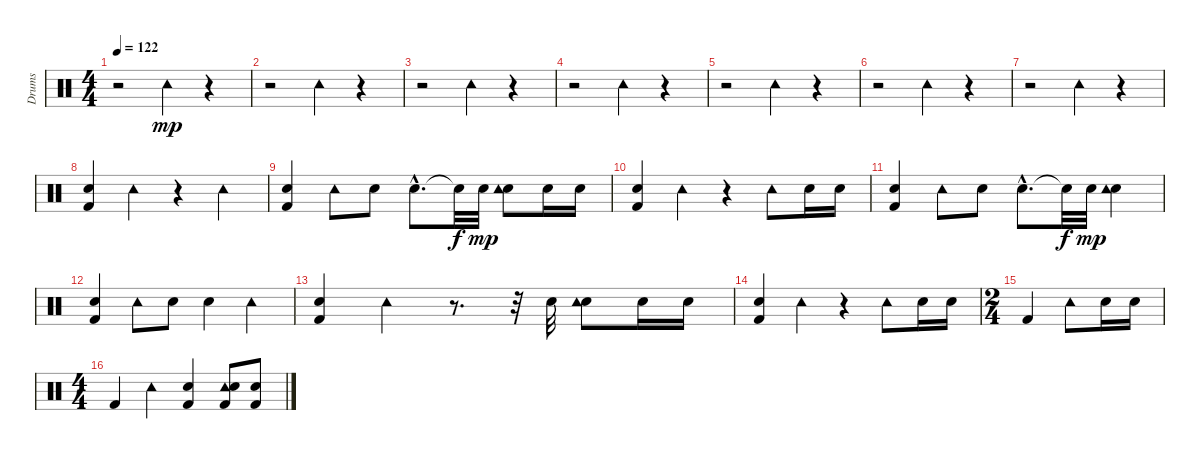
\track ("Drums" "Drums") {instrument percussion}
\staff {score}
\articulation defaults
\ts (4 4)
\tempo 122
\clef neutral
\ks c
r.2{dy mp} "Tambourine (hit)".4 r.4 |
r.2 "Tambourine (hit)".4 r.4 |
r.2 "Tambourine (hit)".4 r.4 |
r.2 "Tambourine (hit)".4 r.4 |
r.2 "Tambourine (hit)".4 r.4 |
r.2 "Tambourine (hit)".4 r.4 |
r.2 "Tambourine (hit)".4 r.4 |
("Kick (hit) 2" "Snare (hit) 2").4 "Tambourine (hit)".4 r.4 "Tambourine (hit)".4 |
("Kick (hit) 2" "Snare (hit) 2").4 "Tambourine (hit)".8 "Snare (hit) 2".8 "Snare (hit) 2"{hac}.8{d} "Snare (hit)"{t}.32{dy f} "Hand Clap (hit)".32{dy mp} ("Hand Clap (hit)" "Tambourine (hit)").8 "Snare (hit) 2".16 "Snare (hit) 2".16 |
("Kick (hit) 2" "Snare (hit) 2").4 "Tambourine (hit)".4 r.4 "Tambourine (hit)".8 "Snare (hit) 2".16 "Snare (hit) 2".16 |
("Kick (hit) 2" "Snare (hit) 2").4 "Tambourine (hit)".8 "Snare (hit) 2".8 "Snare (hit) 2"{hac}.8{d} "Snare (hit)"{t}.32{dy f} "Hand Clap (hit)".32{dy mp} ("Hand Clap (hit)" "Tambourine (hit)").4 |
("Kick (hit) 2" "Snare (hit) 2").4 "Tambourine (hit)".8 "Snare (hit) 2".8 "Snare (hit) 2".4 "Tambourine (hit)".4 |
("Kick (hit) 2" "Snare (hit) 2").4 "Tambourine (hit)".4 r.8{d} r.32 "Hand Clap (hit)".32 ("Hand Clap (hit)" "Tambourine (hit)").8 "Snare (hit) 2".16 "Snare (hit) 2".16 |
("Kick (hit) 2" "Snare (hit) 2").4 "Tambourine (hit)".4 r.4 "Tambourine (hit)".8 "Snare (hit) 2".16 "Snare (hit) 2".16 |
\ts (2 4)
"Kick (hit) 2".4 "Tambourine (hit)".8 "Snare (hit) 2".16 "Snare (hit) 2".16 |
\ts (4 4)
"Kick (hit) 2".4 "Tambourine (hit)".4 ("Kick (hit) 2" "Snare (hit) 2").4 ("Tambourine (hit)" "Kick (hit) 2" "Snare (hit) 2").8 ("Kick (hit) 2" "Snare (hit) 2").8
